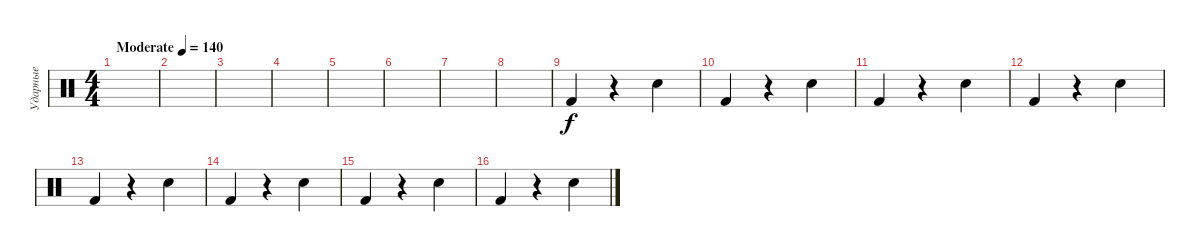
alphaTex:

\track ("Ударные" "Ударные") {instrument percussion}
\staff {score}
\articulation defaults
\ts (4 4)
\tempo (140 "Moderate")
\clef neutral
\ks c
|
|
|
|
|
|
|
|
"Kick (hit) 2".4 r.4 "Snare (hit) 2".4 |
"Kick (hit) 2".4 r.4 "Snare (hit) 2".4 |
"Kick (hit) 2".4 r.4 "Snare (hit) 2".4 |
"Kick (hit) 2".4 r.4 "Snare (hit) 2".4 |
"Kick (hit) 2".4 r.4 "Snare (hit) 2".4 |
"Kick (hit) 2".4 r.4 "Snare (hit) 2".4 |
"Kick (hit) 2".4 r.4 "Snare (hit) 2".4 |
"Kick (hit) 2".4 r.4 "Snare (hit) 2".4
